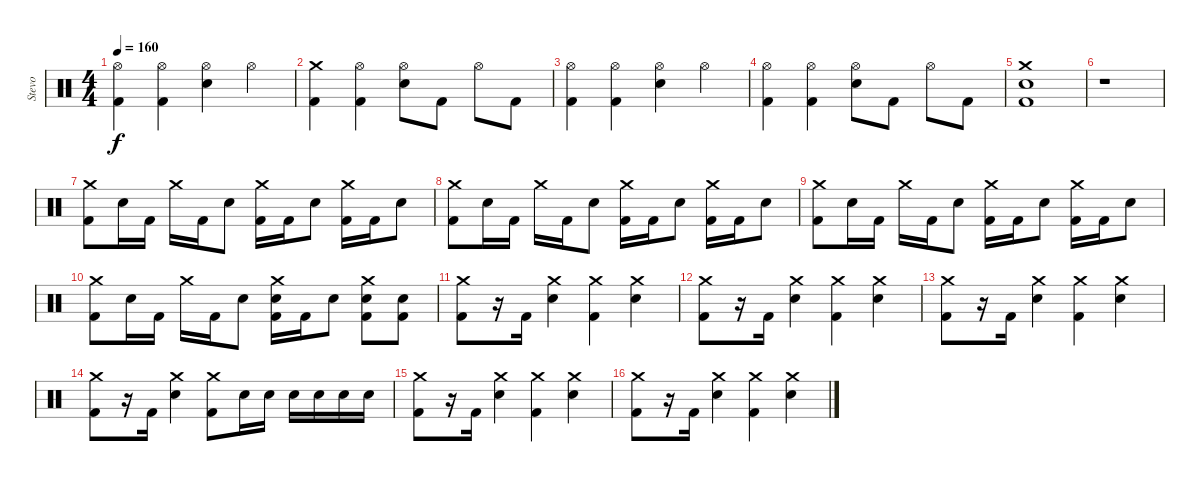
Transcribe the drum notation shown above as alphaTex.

\track ("Stevo" "Stevo") {instrument percussion}
\staff {score}
\articulation defaults
\ts (4 4)
\tempo 160
\clef neutral
\ks c
("Hi-Hat (open)" "Kick (hit) 2").4{dy f} ("Hi-Hat (open)" "Kick (hit) 2").4 ("Electric Snare (hit)" "Hi-Hat (open)").4 "Hi-Hat (open)".4 |
("Crash medium (hit)" "Kick (hit) 2").4 ("Hi-Hat (open)" "Kick (hit) 2").4 ("Electric Snare (hit)" "Hi-Hat (open)").8 "Kick (hit) 2".8 "Hi-Hat (open)".8 "Kick (hit) 2".8 |
("Hi-Hat (open)" "Kick (hit) 2").4 ("Hi-Hat (open)" "Kick (hit) 2").4 ("Electric Snare (hit)" "Hi-Hat (open)").4 "Hi-Hat (open)".4 |
("Hi-Hat (open)" "Kick (hit) 2").4 ("Hi-Hat (open)" "Kick (hit) 2").4 ("Electric Snare (hit)" "Hi-Hat (open)").8 "Kick (hit) 2".8 "Hi-Hat (open)".8 "Kick (hit) 2".8 |
("Crash medium (hit)" "Electric Snare (hit)" "Kick (hit) 2").1 |
r.1 |
("Crash medium (hit)" "Kick (hit) 2").8 "Electric Snare (hit)".16 "Kick (hit) 2".16 "Crash medium (hit)".16 "Kick (hit) 2".16 "Electric Snare (hit)".8 ("Crash medium (hit)" "Kick (hit) 2").16 "Kick (hit) 2".16 "Electric Snare (hit)".8 ("Crash medium (hit)" "Kick (hit) 2").16 "Kick (hit) 2".16 "Electric Snare (hit)".8 |
("Crash medium (hit)" "Kick (hit) 2").8 "Electric Snare (hit)".16 "Kick (hit) 2".16 "Crash medium (hit)".16 "Kick (hit) 2".16 "Electric Snare (hit)".8 ("Crash medium (hit)" "Kick (hit) 2").16 "Kick (hit) 2".16 "Electric Snare (hit)".8 ("Crash medium (hit)" "Kick (hit) 2").16 "Kick (hit) 2".16 "Electric Snare (hit)".8 |
("Crash medium (hit)" "Kick (hit) 2").8 "Electric Snare (hit)".16 "Kick (hit) 2".16 "Crash medium (hit)".16 "Kick (hit) 2".16 "Electric Snare (hit)".8 ("Crash medium (hit)" "Kick (hit) 2").16 "Kick (hit) 2".16 "Electric Snare (hit)".8 ("Crash medium (hit)" "Kick (hit) 2").16 "Kick (hit) 2".16 "Electric Snare (hit)".8 |
("Crash medium (hit)" "Kick (hit) 2").8 "Electric Snare (hit)".16 "Kick (hit) 2".16 "Crash medium (hit)".16 "Kick (hit) 2".16 "Electric Snare (hit)".8 ("Crash medium (hit)" "Electric Snare (hit)" "Kick (hit) 2").16 "Kick (hit) 2".16 "Electric Snare (hit)".8 ("Crash medium (hit)" "Electric Snare (hit)" "Kick (hit) 2").8 ("Electric Snare (hit)" "Kick (hit) 2").8 |
("Crash medium (hit)" "Kick (hit) 2").8 r.16 "Kick (hit) 2".16 ("Crash medium (hit)" "Electric Snare (hit)").4 ("Crash medium (hit)" "Kick (hit) 2").4 ("Crash medium (hit)" "Electric Snare (hit)").4 |
("Crash medium (hit)" "Kick (hit) 2").8 r.16 "Kick (hit) 2".16 ("Crash medium (hit)" "Electric Snare (hit)").4 ("Crash medium (hit)" "Kick (hit) 2").4 ("Crash medium (hit)" "Electric Snare (hit)").4 |
("Crash medium (hit)" "Kick (hit) 2").8 r.16 "Kick (hit) 2".16 ("Crash medium (hit)" "Electric Snare (hit)").4 ("Crash medium (hit)" "Kick (hit) 2").4 ("Crash medium (hit)" "Electric Snare (hit)").4 |
("Crash medium (hit)" "Kick (hit) 2").8 r.16 "Kick (hit) 2".16 ("Crash medium (hit)" "Electric Snare (hit)").4 ("Crash medium (hit)" "Kick (hit) 2").8 "Electric Snare (hit)".16 "Electric Snare (hit)".16 "Electric Snare (hit)".16 "Electric Snare (hit)".16 "Electric Snare (hit)".16 "Electric Snare (hit)".16 |
("Crash medium (hit)" "Kick (hit) 2").8 r.16 "Kick (hit) 2".16 ("Crash medium (hit)" "Electric Snare (hit)").4 ("Crash medium (hit)" "Kick (hit) 2").4 ("Crash medium (hit)" "Electric Snare (hit)").4 |
("Crash medium (hit)" "Kick (hit) 2").8 r.16 "Kick (hit) 2".16 ("Crash medium (hit)" "Electric Snare (hit)").4 ("Crash medium (hit)" "Kick (hit) 2").4 ("Crash medium (hit)" "Electric Snare (hit)").4
